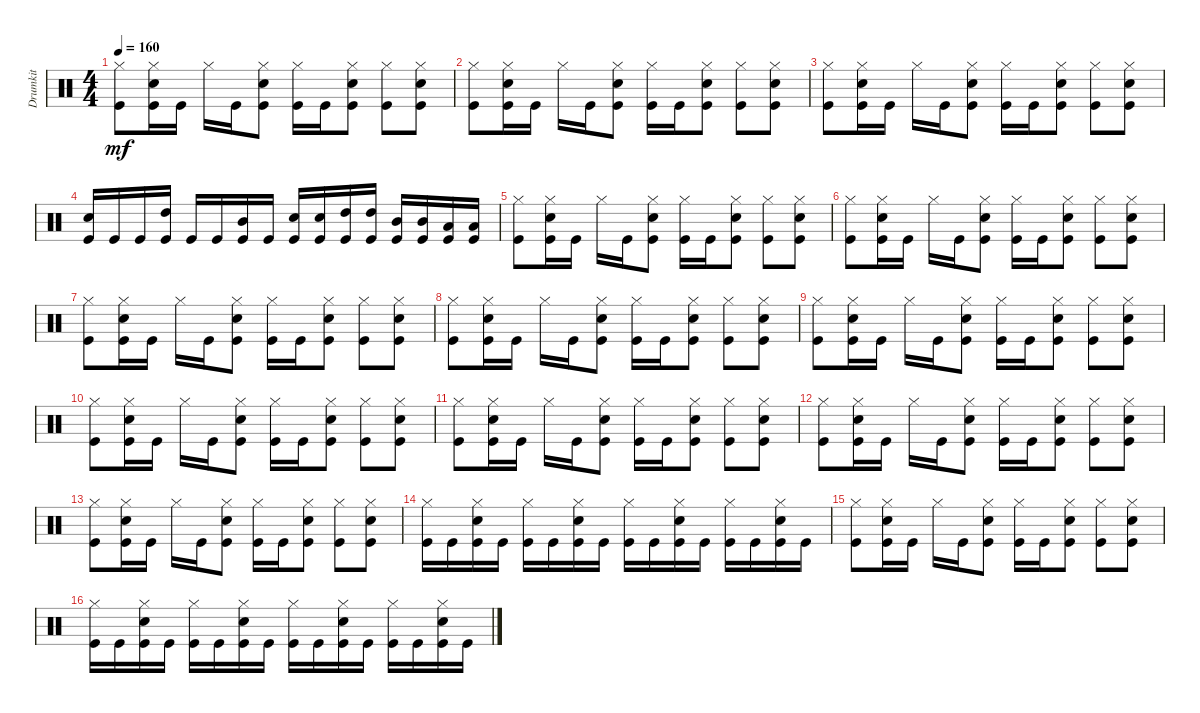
\track ("Drumkit" "Drumkit") {instrument percussion}
\staff {score}
\articulation defaults
\ts (4 4)
\tempo 160
\clef neutral
\ks c
("Kick (hit)" "Hi-Hat (closed)").8{dy mf} ("Kick (hit)" "Snare (hit) 2" "Hi-Hat (closed)").16 "Kick (hit)".16 "Hi-Hat (closed)".16 "Kick (hit)".16 ("Kick (hit)" "Snare (hit) 2" "Hi-Hat (closed)").8 ("Kick (hit)" "Hi-Hat (closed)").16 "Kick (hit)".16 ("Kick (hit)" "Snare (hit) 2" "Hi-Hat (closed)").8 ("Kick (hit)" "Hi-Hat (closed)").8 ("Kick (hit)" "Snare (hit) 2" "Hi-Hat (closed)").8 |
("Kick (hit)" "Hi-Hat (closed)").8 ("Kick (hit)" "Snare (hit) 2" "Hi-Hat (closed)").16 "Kick (hit)".16 "Hi-Hat (closed)".16 "Kick (hit)".16 ("Kick (hit)" "Snare (hit) 2" "Hi-Hat (closed)").8 ("Kick (hit)" "Hi-Hat (closed)").16 "Kick (hit)".16 ("Kick (hit)" "Snare (hit) 2" "Hi-Hat (closed)").8 ("Kick (hit)" "Hi-Hat (closed)").8 ("Kick (hit)" "Snare (hit) 2" "Hi-Hat (closed)").8 |
("Kick (hit)" "Hi-Hat (closed)").8 ("Kick (hit)" "Snare (hit) 2" "Hi-Hat (closed)").16 "Kick (hit)".16 "Hi-Hat (closed)".16 "Kick (hit)".16 ("Kick (hit)" "Snare (hit) 2" "Hi-Hat (closed)").8 ("Kick (hit)" "Hi-Hat (closed)").16 "Kick (hit)".16 ("Kick (hit)" "Snare (hit) 2" "Hi-Hat (closed)").8 ("Kick (hit)" "Hi-Hat (closed)").8 ("Kick (hit)" "Snare (hit) 2" "Hi-Hat (closed)").8 |
("Kick (hit)" "Snare (hit) 2").16 "Kick (hit)".16 "Kick (hit)".16 ("Kick (hit)" "High Tom (hit)").16 "Kick (hit)".16 "Kick (hit)".16 ("Kick (hit)" "Mid Tom (hit)").16 "Kick (hit)".16 ("Kick (hit)" "Snare (hit) 2").16 ("Kick (hit)" "Snare (hit) 2").16 ("Kick (hit)" "High Tom (hit)").16 ("Kick (hit)" "High Tom (hit)").16 ("Kick (hit)" "Mid Tom (hit)").16 ("Kick (hit)" "Mid Tom (hit)").16 ("Kick (hit)" "Low Tom (hit)").16 ("Kick (hit)" "Low Tom (hit)").16 |
("Kick (hit)" "Hi-Hat (closed)").8 ("Kick (hit)" "Snare (hit) 2" "Hi-Hat (closed)").16 "Kick (hit)".16 "Hi-Hat (closed)".16 "Kick (hit)".16 ("Kick (hit)" "Snare (hit) 2" "Hi-Hat (closed)").8 ("Kick (hit)" "Hi-Hat (closed)").16 "Kick (hit)".16 ("Kick (hit)" "Snare (hit) 2" "Hi-Hat (closed)").8 ("Kick (hit)" "Hi-Hat (closed)").8 ("Kick (hit)" "Snare (hit) 2" "Hi-Hat (closed)").8 |
("Kick (hit)" "Hi-Hat (closed)").8 ("Kick (hit)" "Snare (hit) 2" "Hi-Hat (closed)").16 "Kick (hit)".16 "Hi-Hat (closed)".16 "Kick (hit)".16 ("Kick (hit)" "Snare (hit) 2" "Hi-Hat (closed)").8 ("Kick (hit)" "Hi-Hat (closed)").16 "Kick (hit)".16 ("Kick (hit)" "Snare (hit) 2" "Hi-Hat (closed)").8 ("Kick (hit)" "Hi-Hat (closed)").8 ("Kick (hit)" "Snare (hit) 2" "Hi-Hat (closed)").8 |
("Kick (hit)" "Hi-Hat (closed)").8 ("Kick (hit)" "Snare (hit) 2" "Hi-Hat (closed)").16 "Kick (hit)".16 "Hi-Hat (closed)".16 "Kick (hit)".16 ("Kick (hit)" "Snare (hit) 2" "Hi-Hat (closed)").8 ("Kick (hit)" "Hi-Hat (closed)").16 "Kick (hit)".16 ("Kick (hit)" "Snare (hit) 2" "Hi-Hat (closed)").8 ("Kick (hit)" "Hi-Hat (closed)").8 ("Kick (hit)" "Snare (hit) 2" "Hi-Hat (closed)").8 |
("Kick (hit)" "Hi-Hat (closed)").8 ("Kick (hit)" "Snare (hit) 2" "Hi-Hat (closed)").16 "Kick (hit)".16 "Hi-Hat (closed)".16 "Kick (hit)".16 ("Kick (hit)" "Snare (hit) 2" "Hi-Hat (closed)").8 ("Kick (hit)" "Hi-Hat (closed)").16 "Kick (hit)".16 ("Kick (hit)" "Snare (hit) 2" "Hi-Hat (closed)").8 ("Kick (hit)" "Hi-Hat (closed)").8 ("Kick (hit)" "Snare (hit) 2" "Hi-Hat (closed)").8 |
("Kick (hit)" "Hi-Hat (closed)").8 ("Kick (hit)" "Snare (hit) 2" "Hi-Hat (closed)").16 "Kick (hit)".16 "Hi-Hat (closed)".16 "Kick (hit)".16 ("Kick (hit)" "Snare (hit) 2" "Hi-Hat (closed)").8 ("Kick (hit)" "Hi-Hat (closed)").16 "Kick (hit)".16 ("Kick (hit)" "Snare (hit) 2" "Hi-Hat (closed)").8 ("Kick (hit)" "Hi-Hat (closed)").8 ("Kick (hit)" "Snare (hit) 2" "Hi-Hat (closed)").8 |
("Kick (hit)" "Hi-Hat (closed)").8 ("Kick (hit)" "Snare (hit) 2" "Hi-Hat (closed)").16 "Kick (hit)".16 "Hi-Hat (closed)".16 "Kick (hit)".16 ("Kick (hit)" "Snare (hit) 2" "Hi-Hat (closed)").8 ("Kick (hit)" "Hi-Hat (closed)").16 "Kick (hit)".16 ("Kick (hit)" "Snare (hit) 2" "Hi-Hat (closed)").8 ("Kick (hit)" "Hi-Hat (closed)").8 ("Kick (hit)" "Snare (hit) 2" "Hi-Hat (closed)").8 |
("Kick (hit)" "Hi-Hat (closed)").8 ("Kick (hit)" "Snare (hit) 2" "Hi-Hat (closed)").16 "Kick (hit)".16 "Hi-Hat (closed)".16 "Kick (hit)".16 ("Kick (hit)" "Snare (hit) 2" "Hi-Hat (closed)").8 ("Kick (hit)" "Hi-Hat (closed)").16 "Kick (hit)".16 ("Kick (hit)" "Snare (hit) 2" "Hi-Hat (closed)").8 ("Kick (hit)" "Hi-Hat (closed)").8 ("Kick (hit)" "Snare (hit) 2" "Hi-Hat (closed)").8 |
("Kick (hit)" "Hi-Hat (closed)").8 ("Kick (hit)" "Snare (hit) 2" "Hi-Hat (closed)").16 "Kick (hit)".16 "Hi-Hat (closed)".16 "Kick (hit)".16 ("Kick (hit)" "Snare (hit) 2" "Hi-Hat (closed)").8 ("Kick (hit)" "Hi-Hat (closed)").16 "Kick (hit)".16 ("Kick (hit)" "Snare (hit) 2" "Hi-Hat (closed)").8 ("Kick (hit)" "Hi-Hat (closed)").8 ("Kick (hit)" "Snare (hit) 2" "Hi-Hat (closed)").8 |
("Kick (hit)" "Hi-Hat (closed)").8 ("Kick (hit)" "Snare (hit) 2" "Hi-Hat (closed)").16 "Kick (hit)".16 "Hi-Hat (closed)".16 "Kick (hit)".16 ("Kick (hit)" "Snare (hit) 2" "Hi-Hat (closed)").8 ("Kick (hit)" "Hi-Hat (closed)").16 "Kick (hit)".16 ("Kick (hit)" "Snare (hit) 2" "Hi-Hat (closed)").8 ("Kick (hit)" "Hi-Hat (closed)").8 ("Kick (hit)" "Snare (hit) 2" "Hi-Hat (closed)").8 |
("Kick (hit)" "Hi-Hat (closed)").16 "Kick (hit)".16 ("Kick (hit)" "Snare (hit) 2" "Hi-Hat (closed)").16 "Kick (hit)".16 ("Kick (hit)" "Hi-Hat (closed)").16 "Kick (hit)".16 ("Kick (hit)" "Snare (hit) 2" "Hi-Hat (closed)").16 "Kick (hit)".16 ("Kick (hit)" "Hi-Hat (closed)").16 "Kick (hit)".16 ("Kick (hit)" "Snare (hit) 2" "Hi-Hat (closed)").16 "Kick (hit)".16 ("Kick (hit)" "Hi-Hat (closed)").16 "Kick (hit)".16 ("Kick (hit)" "Snare (hit) 2" "Hi-Hat (closed)").16 "Kick (hit)".16 |
("Kick (hit)" "Hi-Hat (closed)").8 ("Kick (hit)" "Snare (hit) 2" "Hi-Hat (closed)").16 "Kick (hit)".16 "Hi-Hat (closed)".16 "Kick (hit)".16 ("Kick (hit)" "Snare (hit) 2" "Hi-Hat (closed)").8 ("Kick (hit)" "Hi-Hat (closed)").16 "Kick (hit)".16 ("Kick (hit)" "Snare (hit) 2" "Hi-Hat (closed)").8 ("Kick (hit)" "Hi-Hat (closed)").8 ("Kick (hit)" "Snare (hit) 2" "Hi-Hat (closed)").8 |
("Kick (hit)" "Hi-Hat (closed)").16 "Kick (hit)".16 ("Kick (hit)" "Snare (hit) 2" "Hi-Hat (closed)").16 "Kick (hit)".16 ("Kick (hit)" "Hi-Hat (closed)").16 "Kick (hit)".16 ("Kick (hit)" "Snare (hit) 2" "Hi-Hat (closed)").16 "Kick (hit)".16 ("Kick (hit)" "Hi-Hat (closed)").16 "Kick (hit)".16 ("Kick (hit)" "Snare (hit) 2" "Hi-Hat (closed)").16 "Kick (hit)".16 ("Kick (hit)" "Hi-Hat (closed)").16 "Kick (hit)".16 ("Kick (hit)" "Snare (hit) 2" "Hi-Hat (closed)").16 "Kick (hit)".16
